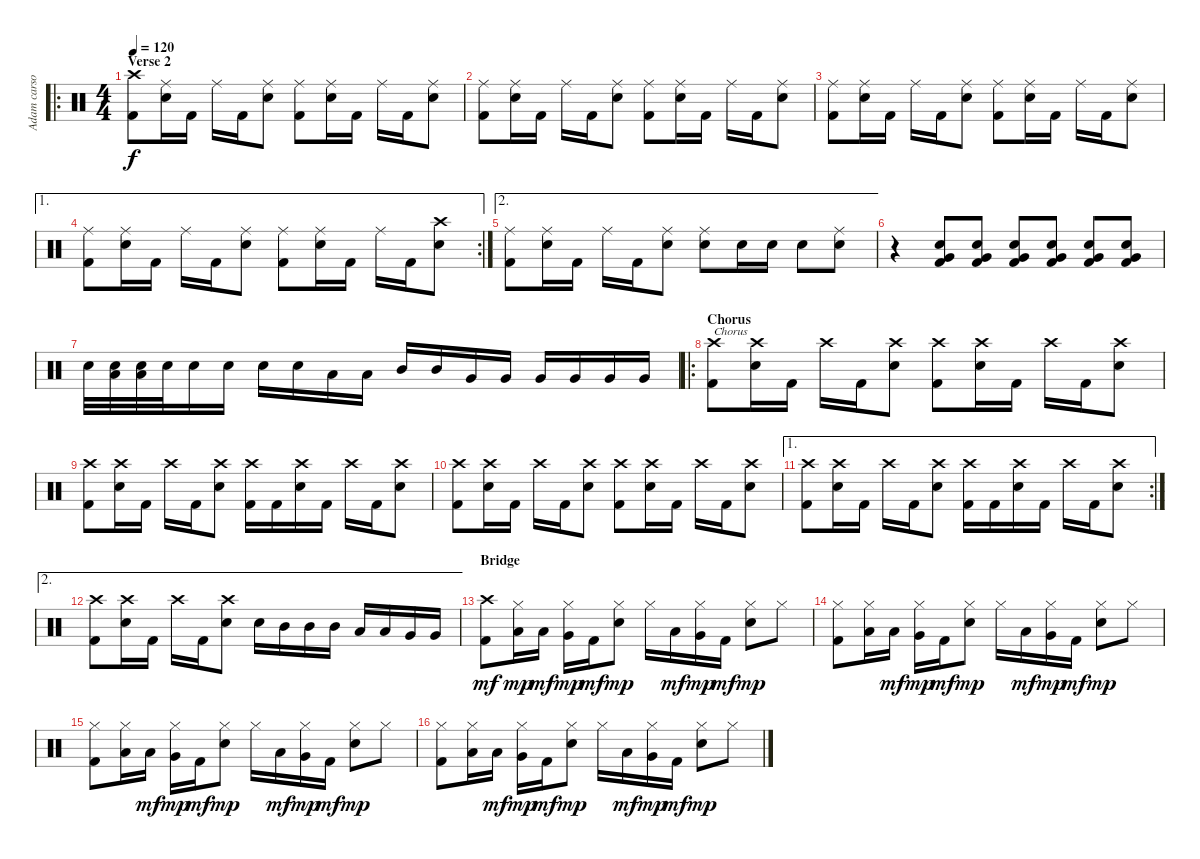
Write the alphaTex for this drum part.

\track ("Adam carson" "Adam carso") {instrument percussion}
\staff {score}
\articulation defaults
\ro
\ts (4 4)
\section ("" "Verse 2")
\tempo 120
\clef neutral
\ks c
("Kick (hit) 2" "Crash high (hit)").8{dy f} ("Ride (middle)" "Snare (hit) 2").16 "Kick (hit) 2".16 "Ride (middle)".16 "Kick (hit) 2".16 ("Ride (middle)" "Snare (hit) 2").8 ("Kick (hit) 2" "Ride (middle)").8 ("Ride (middle)" "Snare (hit) 2").16 "Kick (hit) 2".16 "Ride (middle)".16 "Kick (hit) 2".16 ("Ride (middle)" "Snare (hit) 2").8 |
("Kick (hit) 2" "Ride (middle)").8 ("Ride (middle)" "Snare (hit) 2").16 "Kick (hit) 2".16 "Ride (middle)".16 "Kick (hit) 2".16 ("Ride (middle)" "Snare (hit) 2").8 ("Kick (hit) 2" "Ride (middle)").8 ("Ride (middle)" "Snare (hit) 2").16 "Kick (hit) 2".16 "Ride (middle)".16 "Kick (hit) 2".16 ("Ride (middle)" "Snare (hit) 2").8 |
("Kick (hit) 2" "Ride (middle)").8 ("Ride (middle)" "Snare (hit) 2").16 "Kick (hit) 2".16 "Ride (middle)".16 "Kick (hit) 2".16 ("Ride (middle)" "Snare (hit) 2").8 ("Kick (hit) 2" "Ride (middle)").8 ("Ride (middle)" "Snare (hit) 2").16 "Kick (hit) 2".16 "Ride (middle)".16 "Kick (hit) 2".16 ("Ride (middle)" "Snare (hit) 2").8 |
\ae 1
\rc 2
("Kick (hit) 2" "Ride (middle)").8 ("Ride (middle)" "Snare (hit) 2").16 "Kick (hit) 2".16 "Ride (middle)".16 "Kick (hit) 2".16 ("Ride (middle)" "Snare (hit) 2").8 ("Kick (hit) 2" "Ride (middle)").8 ("Ride (middle)" "Snare (hit) 2").16 "Kick (hit) 2".16 "Ride (middle)".16 "Kick (hit) 2".16 ("Crash high (hit)" "Snare (hit) 2").8 |
\ae 2
("Kick (hit) 2" "Ride (middle)").8 ("Ride (middle)" "Snare (hit) 2").16 "Kick (hit) 2".16 "Ride (middle)".16 "Kick (hit) 2".16 ("Ride (middle)" "Snare (hit) 2").8 ("Ride (middle)" "Snare (hit) 2").8 "Snare (hit) 2".16 "Snare (hit) 2".16 "Snare (hit) 2".8 ("Ride (middle)" "Snare (hit) 2").8 |
r.4 ("Kick (hit) 2" "Snare (hit) 2" "Very Low Tom (hit)").8 ("Kick (hit) 2" "Snare (hit) 2" "Very Low Tom (hit)").8 ("Kick (hit) 2" "Snare (hit) 2" "Very Low Tom (hit)").8 ("Kick (hit) 2" "Snare (hit) 2" "Very Low Tom (hit)").8 ("Kick (hit) 2" "Snare (hit) 2" "Very Low Tom (hit)").8 ("Kick (hit) 2" "Snare (hit) 2" "Very Low Tom (hit)").8 |
"Snare (hit) 2".32 ("Snare (hit) 2" "Low Tom (hit)").32 ("Snare (hit) 2" "Low Tom (hit)").32 "Snare (hit) 2".32 "Snare (hit) 2".16 "Snare (hit) 2".16 "Snare (hit) 2".16 "Snare (hit) 2".16 "Low Tom (hit)".16 "Low Tom (hit)".16 "Mid Tom (hit)".16 "Mid Tom (hit)".16 "Very Low Tom (hit)".16 "Very Low Tom (hit)".16 "Very Low Tom (hit)".16 "Very Low Tom (hit)".16 "Very Low Tom (hit)".16 "Very Low Tom (hit)".16 |
\ro
\section ("" "Chorus")
("Kick (hit) 2" "Crash high (hit)").8{txt "Chorus"} ("Crash high (hit)" "Snare (hit) 2").16 "Kick (hit) 2".16 "Crash high (hit)".16 "Kick (hit) 2".16 ("Crash high (hit)" "Snare (hit) 2").8 ("Kick (hit) 2" "Crash high (hit)").8 ("Crash high (hit)" "Snare (hit) 2").16 "Kick (hit) 2".16 "Crash high (hit)".16 "Kick (hit) 2".16 ("Crash high (hit)" "Snare (hit) 2").8 |
("Kick (hit) 2" "Crash high (hit)").8 ("Crash high (hit)" "Snare (hit) 2").16 "Kick (hit) 2".16 "Crash high (hit)".16 "Kick (hit) 2".16 ("Crash high (hit)" "Snare (hit) 2").8 ("Kick (hit) 2" "Crash high (hit)").16 "Kick (hit) 2".16 ("Crash high (hit)" "Snare (hit) 2").16 "Kick (hit) 2".16 "Crash high (hit)".16 "Kick (hit) 2".16 ("Crash high (hit)" "Snare (hit) 2").8 |
("Kick (hit) 2" "Crash high (hit)").8 ("Crash high (hit)" "Snare (hit) 2").16 "Kick (hit) 2".16 "Crash high (hit)".16 "Kick (hit) 2".16 ("Crash high (hit)" "Snare (hit) 2").8 ("Kick (hit) 2" "Crash high (hit)").8 ("Crash high (hit)" "Snare (hit) 2").16 "Kick (hit) 2".16 "Crash high (hit)".16 "Kick (hit) 2".16 ("Crash high (hit)" "Snare (hit) 2").8 |
\ae 1
\rc 2
("Kick (hit) 2" "Crash high (hit)").8 ("Crash high (hit)" "Snare (hit) 2").16 "Kick (hit) 2".16 "Crash high (hit)".16 "Kick (hit) 2".16 ("Crash high (hit)" "Snare (hit) 2").8 ("Kick (hit) 2" "Crash high (hit)").16 "Kick (hit) 2".16 ("Crash high (hit)" "Snare (hit) 2").16 "Kick (hit) 2".16 "Crash high (hit)".16 "Kick (hit) 2".16 ("Crash high (hit)" "Snare (hit) 2").8 |
\ae 2
("Kick (hit) 2" "Crash high (hit)").8 ("Crash high (hit)" "Snare (hit) 2").16 "Kick (hit) 2".16 "Crash high (hit)".16 "Kick (hit) 2".16 ("Crash high (hit)" "Snare (hit) 2").8 "Snare (hit) 2".16 "Mid Tom (hit)".16 "Mid Tom (hit)".16 "Mid Tom (hit)".16 "Low Tom (hit)".16 "Low Tom (hit)".16 "Very Low Tom (hit)".16 "Very Low Tom (hit)".16 |
\section ("" "Bridge")
("Kick (hit) 2" "Crash high (hit)").8{dy mf} ("Low Tom (hit)" "Hi-Hat (closed)").16{dy mp} "Low Tom (hit)".16{dy mf} ("Very Low Tom (hit)" "Hi-Hat (closed)").16{dy mp} "Kick (hit) 2".16{dy mf} ("Snare (hit) 2" "Hi-Hat (closed)").8{dy mp} "Hi-Hat (closed)".16 "Low Tom (hit)".16{dy mf} ("Very Low Tom (hit)" "Hi-Hat (closed)").16{dy mp} "Kick (hit) 2".16{dy mf} ("Snare (hit) 2" "Hi-Hat (closed)").8{dy mp} "Hi-Hat (closed)".8 |
("Kick (hit) 2" "Hi-Hat (closed)").8 ("Low Tom (hit)" "Hi-Hat (closed)").16 "Low Tom (hit)".16{dy mf} ("Very Low Tom (hit)" "Hi-Hat (closed)").16{dy mp} "Kick (hit) 2".16{dy mf} ("Snare (hit) 2" "Hi-Hat (closed)").8{dy mp} "Hi-Hat (closed)".16 "Low Tom (hit)".16{dy mf} ("Very Low Tom (hit)" "Hi-Hat (closed)").16{dy mp} "Kick (hit) 2".16{dy mf} ("Snare (hit) 2" "Hi-Hat (closed)").8{dy mp} "Hi-Hat (closed)".8 |
("Kick (hit) 2" "Hi-Hat (closed)").8 ("Low Tom (hit)" "Hi-Hat (closed)").16 "Low Tom (hit)".16{dy mf} ("Very Low Tom (hit)" "Hi-Hat (closed)").16{dy mp} "Kick (hit) 2".16{dy mf} ("Snare (hit) 2" "Hi-Hat (closed)").8{dy mp} "Hi-Hat (closed)".16 "Low Tom (hit)".16{dy mf} ("Very Low Tom (hit)" "Hi-Hat (closed)").16{dy mp} "Kick (hit) 2".16{dy mf} ("Snare (hit) 2" "Hi-Hat (closed)").8{dy mp} "Hi-Hat (closed)".8 |
("Kick (hit) 2" "Hi-Hat (closed)").8 ("Low Tom (hit)" "Hi-Hat (closed)").16 "Low Tom (hit)".16{dy mf} ("Very Low Tom (hit)" "Hi-Hat (closed)").16{dy mp} "Kick (hit) 2".16{dy mf} ("Snare (hit) 2" "Hi-Hat (closed)").8{dy mp} "Hi-Hat (closed)".16 "Low Tom (hit)".16{dy mf} ("Very Low Tom (hit)" "Hi-Hat (closed)").16{dy mp} "Kick (hit) 2".16{dy mf} ("Snare (hit) 2" "Hi-Hat (closed)").8{dy mp} "Hi-Hat (closed)".8
